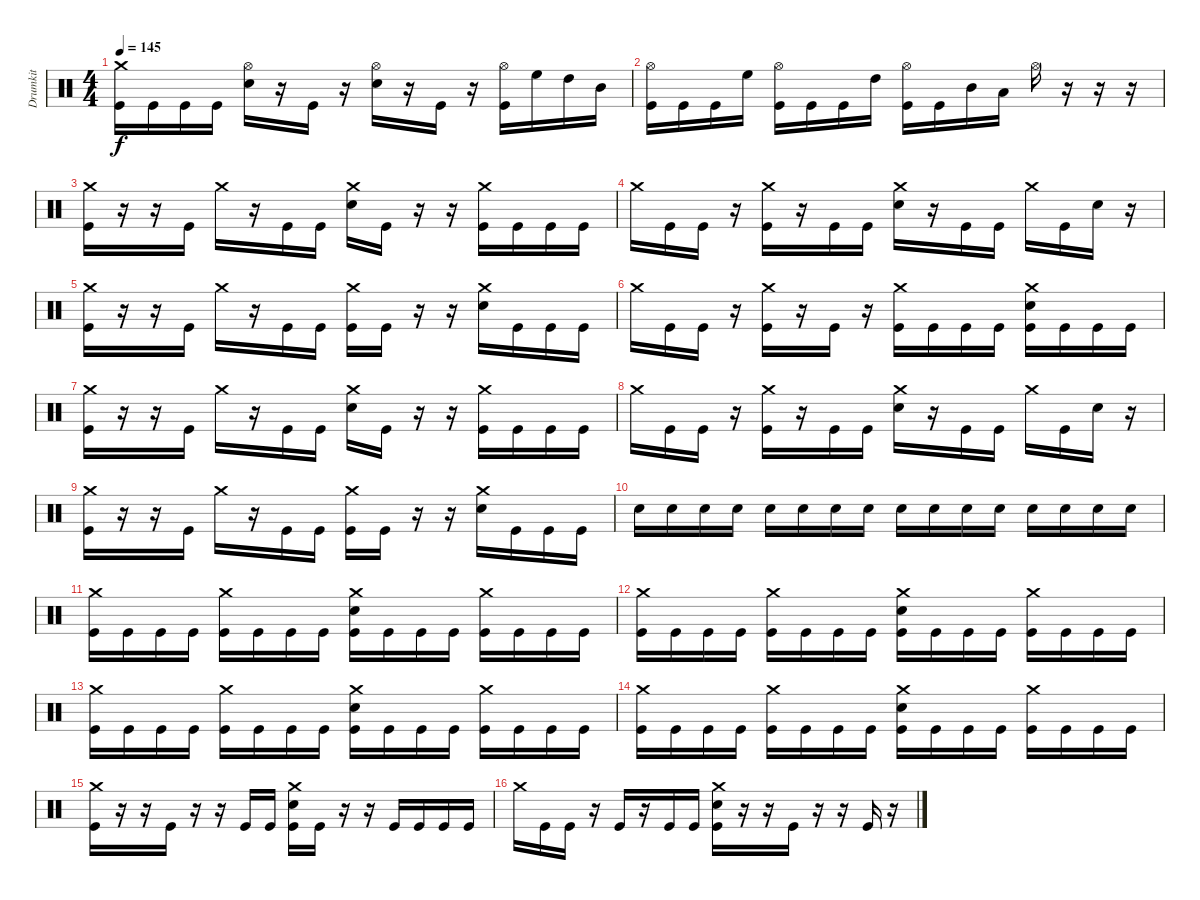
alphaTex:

\track ("Drumkit" "Drumkit") {instrument percussion}
\staff {score}
\articulation defaults
\ts (4 4)
\tempo 145
\clef neutral
\ks c
("Crash medium (hit)" "Kick (hit)").16{dy f} "Kick (hit)".16 "Kick (hit)".16 "Kick (hit)".16 ("Hi-Hat (open)" "Electric Snare (hit)").16 r.16 "Kick (hit)".16 r.16 ("Hi-Hat (open)" "Electric Snare (hit)").16 r.16 "Kick (hit)".16 r.16 ("Hi-Hat (open)" "Kick (hit)").16 "High Floor Tom (hit)".16 "High Tom (hit)".16 "Mid Tom (hit)".16 |
("Hi-Hat (open)" "Kick (hit)").16 "Kick (hit)".16 "Kick (hit)".16 "High Floor Tom (hit)".16 ("Hi-Hat (open)" "Kick (hit)").16 "Kick (hit)".16 "Kick (hit)".16 "High Tom (hit)".16 ("Hi-Hat (open)" "Kick (hit)").16 "Kick (hit)".16 "Mid Tom (hit)".16 "Low Tom (hit)".16 "Hi-Hat (open)".16 r.16 r.16 r.16 |
("Crash medium (hit)" "Kick (hit)").16 r.16 r.16 "Kick (hit)".16 "Crash medium (hit)".16 r.16 "Kick (hit)".16 "Kick (hit)".16 ("Crash medium (hit)" "Electric Snare (hit)").16 "Kick (hit)".16 r.16 r.16 ("Crash medium (hit)" "Kick (hit)").16 "Kick (hit)".16 "Kick (hit)".16 "Kick (hit)".16 |
"Crash medium (hit)".16 "Kick (hit)".16 "Kick (hit)".16 r.16 ("Crash medium (hit)" "Kick (hit)").16 r.16 "Kick (hit)".16 "Kick (hit)".16 ("Crash medium (hit)" "Electric Snare (hit)").16 r.16 "Kick (hit)".16 "Kick (hit)".16 "Crash medium (hit)".16 "Kick (hit)".16 "Electric Snare (hit)".16 r.16 |
("Crash medium (hit)" "Kick (hit)").16 r.16 r.16 "Kick (hit)".16 "Crash medium (hit)".16 r.16 "Kick (hit)".16 "Kick (hit)".16 ("Crash medium (hit)" "Kick (hit)").16 "Kick (hit)".16 r.16 r.16 ("Crash medium (hit)" "Electric Snare (hit)").16 "Kick (hit)".16 "Kick (hit)".16 "Kick (hit)".16 |
"Crash medium (hit)".16 "Kick (hit)".16 "Kick (hit)".16 r.16 ("Crash medium (hit)" "Kick (hit)").16 r.16 "Kick (hit)".16 r.16 ("Crash medium (hit)" "Kick (hit)").16 "Kick (hit)".16 "Kick (hit)".16 "Kick (hit)".16 ("Crash medium (hit)" "Electric Snare (hit)" "Kick (hit)").16 "Kick (hit)".16 "Kick (hit)".16 "Kick (hit)".16 |
("Crash medium (hit)" "Kick (hit)").16 r.16 r.16 "Kick (hit)".16 "Crash medium (hit)".16 r.16 "Kick (hit)".16 "Kick (hit)".16 ("Crash medium (hit)" "Electric Snare (hit)").16 "Kick (hit)".16 r.16 r.16 ("Crash medium (hit)" "Kick (hit)").16 "Kick (hit)".16 "Kick (hit)".16 "Kick (hit)".16 |
"Crash medium (hit)".16 "Kick (hit)".16 "Kick (hit)".16 r.16 ("Crash medium (hit)" "Kick (hit)").16 r.16 "Kick (hit)".16 "Kick (hit)".16 ("Crash medium (hit)" "Electric Snare (hit)").16 r.16 "Kick (hit)".16 "Kick (hit)".16 "Crash medium (hit)".16 "Kick (hit)".16 "Electric Snare (hit)".16 r.16 |
("Crash medium (hit)" "Kick (hit)").16 r.16 r.16 "Kick (hit)".16 "Crash medium (hit)".16 r.16 "Kick (hit)".16 "Kick (hit)".16 ("Crash medium (hit)" "Kick (hit)").16 "Kick (hit)".16 r.16 r.16 ("Crash medium (hit)" "Electric Snare (hit)").16 "Kick (hit)".16 "Kick (hit)".16 "Kick (hit)".16 |
"Electric Snare (hit)".16 "Electric Snare (hit)".16 "Electric Snare (hit)".16 "Electric Snare (hit)".16 "Electric Snare (hit)".16 "Electric Snare (hit)".16 "Electric Snare (hit)".16 "Electric Snare (hit)".16 "Electric Snare (hit)".16 "Electric Snare (hit)".16 "Electric Snare (hit)".16 "Electric Snare (hit)".16 "Electric Snare (hit)".16 "Electric Snare (hit)".16 "Electric Snare (hit)".16 "Electric Snare (hit)".16 |
("Crash medium (hit)" "Kick (hit)").16 "Kick (hit)".16 "Kick (hit)".16 "Kick (hit)".16 ("Crash medium (hit)" "Kick (hit)").16 "Kick (hit)".16 "Kick (hit)".16 "Kick (hit)".16 ("Crash medium (hit)" "Electric Snare (hit)" "Kick (hit)").16 "Kick (hit)".16 "Kick (hit)".16 "Kick (hit)".16 ("Crash medium (hit)" "Kick (hit)").16 "Kick (hit)".16 "Kick (hit)".16 "Kick (hit)".16 |
("Crash medium (hit)" "Kick (hit)").16 "Kick (hit)".16 "Kick (hit)".16 "Kick (hit)".16 ("Crash medium (hit)" "Kick (hit)").16 "Kick (hit)".16 "Kick (hit)".16 "Kick (hit)".16 ("Crash medium (hit)" "Electric Snare (hit)" "Kick (hit)").16 "Kick (hit)".16 "Kick (hit)".16 "Kick (hit)".16 ("Crash medium (hit)" "Kick (hit)").16 "Kick (hit)".16 "Kick (hit)".16 "Kick (hit)".16 |
("Crash medium (hit)" "Kick (hit)").16 "Kick (hit)".16 "Kick (hit)".16 "Kick (hit)".16 ("Crash medium (hit)" "Kick (hit)").16 "Kick (hit)".16 "Kick (hit)".16 "Kick (hit)".16 ("Crash medium (hit)" "Electric Snare (hit)" "Kick (hit)").16 "Kick (hit)".16 "Kick (hit)".16 "Kick (hit)".16 ("Crash medium (hit)" "Kick (hit)").16 "Kick (hit)".16 "Kick (hit)".16 "Kick (hit)".16 |
("Crash medium (hit)" "Kick (hit)").16 "Kick (hit)".16 "Kick (hit)".16 "Kick (hit)".16 ("Crash medium (hit)" "Kick (hit)").16 "Kick (hit)".16 "Kick (hit)".16 "Kick (hit)".16 ("Crash medium (hit)" "Electric Snare (hit)" "Kick (hit)").16 "Kick (hit)".16 "Kick (hit)".16 "Kick (hit)".16 ("Crash medium (hit)" "Kick (hit)").16 "Kick (hit)".16 "Kick (hit)".16 "Kick (hit)".16 |
("Crash medium (hit)" "Kick (hit)").16 r.16 r.16 "Kick (hit)".16 r.16 r.16 "Kick (hit)".16 "Kick (hit)".16 ("Crash medium (hit)" "Electric Snare (hit)" "Kick (hit)").16 "Kick (hit)".16 r.16 r.16 "Kick (hit)".16 "Kick (hit)".16 "Kick (hit)".16 "Kick (hit)".16 |
"Crash medium (hit)".16 "Kick (hit)".16 "Kick (hit)".16 r.16 "Kick (hit)".16 r.16 "Kick (hit)".16 "Kick (hit)".16 ("Crash medium (hit)" "Electric Snare (hit)" "Kick (hit)").16 r.16 r.16 "Kick (hit)".16 r.16 r.16 "Kick (hit)".16 r.16
